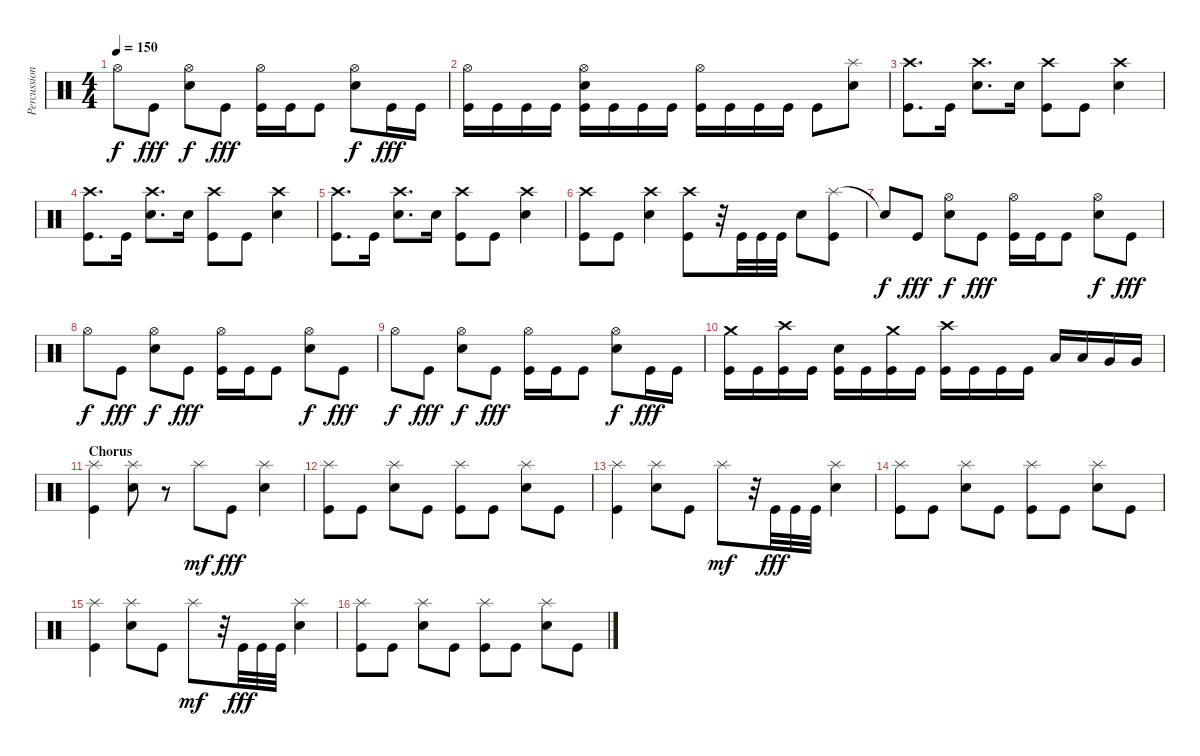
\track ("Percussion" "Percussion") {instrument percussion}
\staff {score}
\articulation defaults
\ts (4 4)
\tempo 150
\clef neutral
\ks c "Hi-Hat (open)".8{dy f} "Kick (hit)".8{dy fff}
("Hi-Hat (open)" "Electric Snare (hit)").8{dy f} "Kick (hit)".8{dy fff} ("Hi-Hat (open)" "Kick (hit)").16 "Kick (hit)".16 "Kick (hit)".8 ("Hi-Hat (open)" "Electric Snare (hit)").8{dy f} "Kick (hit)".16{dy fff} "Kick (hit)".16 |
("Hi-Hat (open)" "Kick (hit)").16 "Kick (hit)".16 "Kick (hit)".16 "Kick (hit)".16 ("Hi-Hat (open)" "Electric Snare (hit)" "Kick (hit)").16 "Kick (hit)".16 "Kick (hit)".16 "Kick (hit)".16 ("Hi-Hat (open)" "Kick (hit)").16 "Kick (hit)".16 "Kick (hit)".16 "Kick (hit)".16 "Kick (hit)".8 ("Splash (hit)" "Electric Snare (hit)").8 |
("Crash high (hit)" "Kick (hit)").8{d} "Kick (hit)".16 ("Crash high (hit)" "Electric Snare (hit)").8{d} "Electric Snare (hit)".16 ("Crash high (hit)" "Kick (hit)").8 "Kick (hit)".8 ("Crash high (hit)" "Electric Snare (hit)").4 |
("Crash high (hit)" "Kick (hit)").8{d} "Kick (hit)".16 ("Crash high (hit)" "Electric Snare (hit)").8{d} "Electric Snare (hit)".16 ("Crash high (hit)" "Kick (hit)").8 "Kick (hit)".8 ("Crash high (hit)" "Electric Snare (hit)").4 |
("Crash high (hit)" "Kick (hit)").8{d} "Kick (hit)".16 ("Crash high (hit)" "Electric Snare (hit)").8{d} "Electric Snare (hit)".16 ("Crash high (hit)" "Kick (hit)").8 "Kick (hit)".8 ("Crash high (hit)" "Electric Snare (hit)").4 |
("Crash high (hit)" "Kick (hit)").8 "Kick (hit)".8 ("Crash high (hit)" "Electric Snare (hit)").4 ("Crash high (hit)" "Kick (hit)").8 r.32 "Kick (hit)".32 "Kick (hit)".32 "Kick (hit)".32 "Electric Snare (hit)".8 ("Splash (hit)" "Kick (hit)").8 |
"Snare (hit)"{t}.8{dy f} "Kick (hit)".8{dy fff} ("Hi-Hat (open)" "Electric Snare (hit)").8{dy f} "Kick (hit)".8{dy fff} ("Hi-Hat (open)" "Kick (hit)").16 "Kick (hit)".16 "Kick (hit)".8 ("Hi-Hat (open)" "Electric Snare (hit)").8{dy f} "Kick (hit)".8{dy fff} |
"Hi-Hat (open)".8{dy f} "Kick (hit)".8{dy fff} ("Hi-Hat (open)" "Electric Snare (hit)").8{dy f} "Kick (hit)".8{dy fff} ("Hi-Hat (open)" "Kick (hit)").16 "Kick (hit)".16 "Kick (hit)".8 ("Hi-Hat (open)" "Electric Snare (hit)").8{dy f} "Kick (hit)".8{dy fff} |
"Hi-Hat (open)".8{dy f} "Kick (hit)".8{dy fff} ("Hi-Hat (open)" "Electric Snare (hit)").8{dy f} "Kick (hit)".8{dy fff} ("Hi-Hat (open)" "Kick (hit)").16 "Kick (hit)".16 "Kick (hit)".8 ("Hi-Hat (open)" "Electric Snare (hit)").8{dy f} "Kick (hit)".16{dy fff} "Kick (hit)".16 |
("Crash medium (hit)" "Kick (hit)").16 "Kick (hit)".16 ("Crash high (hit)" "Kick (hit)").16 "Kick (hit)".16 ("Electric Snare (hit)" "Kick (hit)").16 "Kick (hit)".16 ("Crash medium (hit)" "Kick (hit)").16 "Kick (hit)".16 ("Crash high (hit)" "Kick (hit)").16 "Kick (hit)".16 "Kick (hit)".16 "Kick (hit)".16 "Low Tom (hit)".16 "Low Tom (hit)".16 "Very Low Tom (hit)".16 "Very Low Tom (hit)".16 |
\section ("" "Chorus")
("Splash (hit)" "Kick (hit)").4 ("Splash (hit)" "Electric Snare (hit)").8 r.8 "Splash (hit)".8{dy mf} "Kick (hit)".8{dy fff} ("Splash (hit)" "Electric Snare (hit)").4 |
("Splash (hit)" "Kick (hit)").8 "Kick (hit)".8 ("Splash (hit)" "Electric Snare (hit)").8 "Kick (hit)".8 ("Splash (hit)" "Kick (hit)").8 "Kick (hit)".8 ("Splash (hit)" "Electric Snare (hit)").8 "Kick (hit)".8 |
("Splash (hit)" "Kick (hit)").4 ("Splash (hit)" "Electric Snare (hit)").8 "Kick (hit)".8 "Splash (hit)".8{dy mf} r.32 "Kick (hit)".32{dy fff} "Kick (hit)".32 "Kick (hit)".32 ("Splash (hit)" "Electric Snare (hit)").4 |
("Splash (hit)" "Kick (hit)").8 "Kick (hit)".8 ("Splash (hit)" "Electric Snare (hit)").8 "Kick (hit)".8 ("Splash (hit)" "Kick (hit)").8 "Kick (hit)".8 ("Splash (hit)" "Electric Snare (hit)").8 "Kick (hit)".8 |
("Splash (hit)" "Kick (hit)").4 ("Splash (hit)" "Electric Snare (hit)").8 "Kick (hit)".8 "Splash (hit)".8{dy mf} r.32 "Kick (hit)".32{dy fff} "Kick (hit)".32 "Kick (hit)".32 ("Splash (hit)" "Electric Snare (hit)").4 |
("Splash (hit)" "Kick (hit)").8 "Kick (hit)".8 ("Splash (hit)" "Electric Snare (hit)").8 "Kick (hit)".8 ("Splash (hit)" "Kick (hit)").8 "Kick (hit)".8 ("Splash (hit)" "Electric Snare (hit)").8 "Kick (hit)".8
